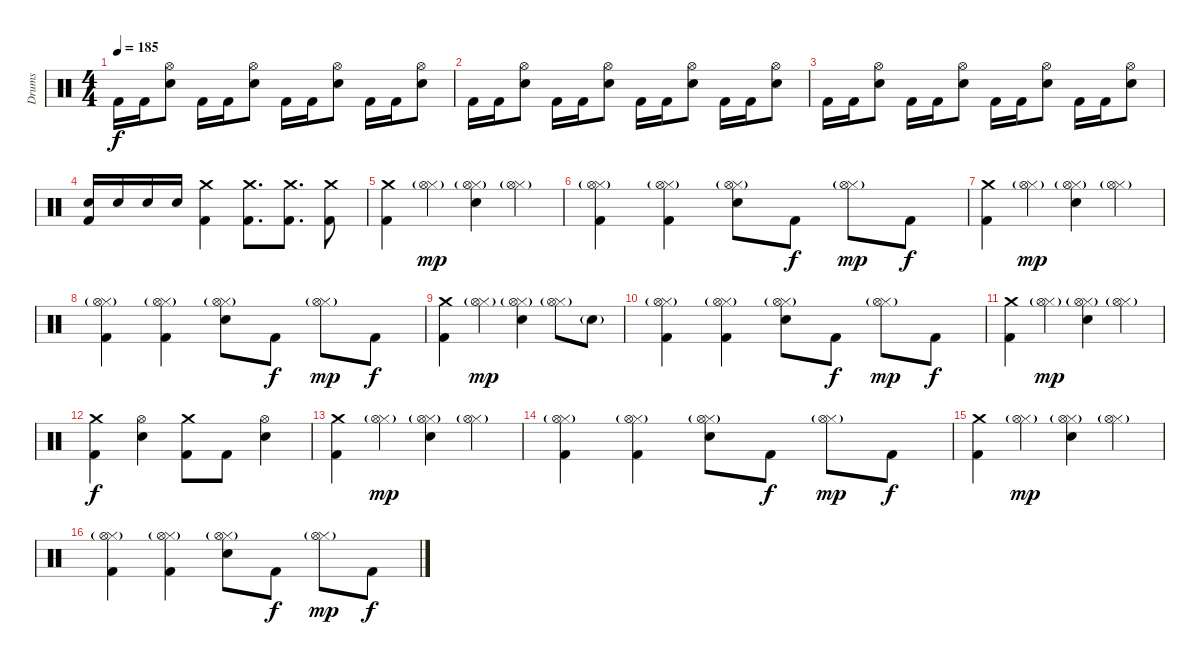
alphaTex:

\track ("Drums" "Drums") {instrument percussion}
\staff {score}
\articulation defaults
\ts (4 4)
\tempo 185
\clef neutral
\ks c "Kick (hit) 2".16{dy f} "Kick (hit) 2".16
("Hi-Hat (open)" "Electric Snare (hit)").8 "Kick (hit) 2".16 "Kick (hit) 2".16 ("Hi-Hat (open)" "Electric Snare (hit)").8 "Kick (hit) 2".16 "Kick (hit) 2".16 ("Hi-Hat (open)" "Electric Snare (hit)").8 "Kick (hit) 2".16 "Kick (hit) 2".16 ("Hi-Hat (open)" "Electric Snare (hit)").8 |
"Kick (hit) 2".16 "Kick (hit) 2".16 ("Hi-Hat (open)" "Electric Snare (hit)").8 "Kick (hit) 2".16 "Kick (hit) 2".16 ("Hi-Hat (open)" "Electric Snare (hit)").8 "Kick (hit) 2".16 "Kick (hit) 2".16 ("Hi-Hat (open)" "Electric Snare (hit)").8 "Kick (hit) 2".16 "Kick (hit) 2".16 ("Hi-Hat (open)" "Electric Snare (hit)").8 |
"Kick (hit) 2".16 "Kick (hit) 2".16 ("Hi-Hat (open)" "Electric Snare (hit)").8 "Kick (hit) 2".16 "Kick (hit) 2".16 ("Hi-Hat (open)" "Electric Snare (hit)").8 "Kick (hit) 2".16 "Kick (hit) 2".16 ("Hi-Hat (open)" "Electric Snare (hit)").8 "Kick (hit) 2".16 "Kick (hit) 2".16 ("Hi-Hat (open)" "Electric Snare (hit)").8 |
("Electric Snare (hit)" "Kick (hit) 2").16 "Electric Snare (hit)".16 "Electric Snare (hit)".16 "Electric Snare (hit)".16 ("Crash medium (hit)" "Kick (hit) 2").4 ("Crash medium (hit)" "Kick (hit) 2").8{d} ("Crash medium (hit)" "Kick (hit) 2").8{d} ("Crash medium (hit)" "Kick (hit) 2").8 |
("Crash medium (hit)" "Kick (hit) 2").4 ("Hi-Hat (closed)" "Hi-Hat (open)"{g}).4{dy mp} ("Hi-Hat (closed)" "Hi-Hat (open)"{g} "Electric Snare (hit)").4 ("Hi-Hat (closed)" "Hi-Hat (open)"{g}).4 |
("Hi-Hat (closed)" "Hi-Hat (open)"{g} "Kick (hit) 2").4 ("Hi-Hat (closed)" "Hi-Hat (open)"{g} "Kick (hit) 2").4 ("Hi-Hat (closed)" "Hi-Hat (open)"{g} "Electric Snare (hit)").8 "Kick (hit) 2".8{dy f} ("Hi-Hat (closed)" "Hi-Hat (open)"{g}).8{dy mp} "Kick (hit) 2".8{dy f} |
("Crash medium (hit)" "Kick (hit) 2").4 ("Hi-Hat (closed)" "Hi-Hat (open)"{g}).4{dy mp} ("Hi-Hat (closed)" "Hi-Hat (open)"{g} "Electric Snare (hit)").4 ("Hi-Hat (closed)" "Hi-Hat (open)"{g}).4 |
("Hi-Hat (closed)" "Hi-Hat (open)"{g} "Kick (hit) 2").4 ("Hi-Hat (closed)" "Hi-Hat (open)"{g} "Kick (hit) 2").4 ("Hi-Hat (closed)" "Hi-Hat (open)"{g} "Electric Snare (hit)").8 "Kick (hit) 2".8{dy f} ("Hi-Hat (closed)" "Hi-Hat (open)"{g}).8{dy mp} "Kick (hit) 2".8{dy f} |
("Crash medium (hit)" "Kick (hit) 2").4 ("Hi-Hat (closed)" "Hi-Hat (open)"{g}).4{dy mp} ("Hi-Hat (closed)" "Hi-Hat (open)"{g} "Electric Snare (hit)").4 ("Hi-Hat (closed)" "Hi-Hat (open)"{g}).8 "Electric Snare (hit)"{g}.8 |
("Hi-Hat (closed)" "Hi-Hat (open)"{g} "Kick (hit) 2").4 ("Hi-Hat (closed)" "Hi-Hat (open)"{g} "Kick (hit) 2").4 ("Hi-Hat (closed)" "Hi-Hat (open)"{g} "Electric Snare (hit)").8 "Kick (hit) 2".8{dy f} ("Hi-Hat (closed)" "Hi-Hat (open)"{g}).8{dy mp} "Kick (hit) 2".8{dy f} |
("Crash medium (hit)" "Kick (hit) 2").4 ("Hi-Hat (closed)" "Hi-Hat (open)"{g}).4{dy mp} ("Hi-Hat (closed)" "Hi-Hat (open)"{g} "Electric Snare (hit)").4 ("Hi-Hat (closed)" "Hi-Hat (open)"{g}).4 |
("Crash medium (hit)" "Kick (hit) 2").4{dy f} ("Hi-Hat (open)" "Electric Snare (hit)").4 ("Crash medium (hit)" "Kick (hit) 2").8 "Kick (hit) 2".8 ("Hi-Hat (open)" "Electric Snare (hit)").4 |
("Crash medium (hit)" "Kick (hit) 2").4 ("Hi-Hat (closed)" "Hi-Hat (open)"{g}).4{dy mp} ("Hi-Hat (closed)" "Hi-Hat (open)"{g} "Electric Snare (hit)").4 ("Hi-Hat (closed)" "Hi-Hat (open)"{g}).4 |
("Hi-Hat (closed)" "Hi-Hat (open)"{g} "Kick (hit) 2").4 ("Hi-Hat (closed)" "Hi-Hat (open)"{g} "Kick (hit) 2").4 ("Hi-Hat (closed)" "Hi-Hat (open)"{g} "Electric Snare (hit)").8 "Kick (hit) 2".8{dy f} ("Hi-Hat (closed)" "Hi-Hat (open)"{g}).8{dy mp} "Kick (hit) 2".8{dy f} |
("Crash medium (hit)" "Kick (hit) 2").4 ("Hi-Hat (closed)" "Hi-Hat (open)"{g}).4{dy mp} ("Hi-Hat (closed)" "Hi-Hat (open)"{g} "Electric Snare (hit)").4 ("Hi-Hat (closed)" "Hi-Hat (open)"{g}).4 |
("Hi-Hat (closed)" "Hi-Hat (open)"{g} "Kick (hit) 2").4 ("Hi-Hat (closed)" "Hi-Hat (open)"{g} "Kick (hit) 2").4 ("Hi-Hat (closed)" "Hi-Hat (open)"{g} "Electric Snare (hit)").8 "Kick (hit) 2".8{dy f} ("Hi-Hat (closed)" "Hi-Hat (open)"{g}).8{dy mp} "Kick (hit) 2".8{dy f}
